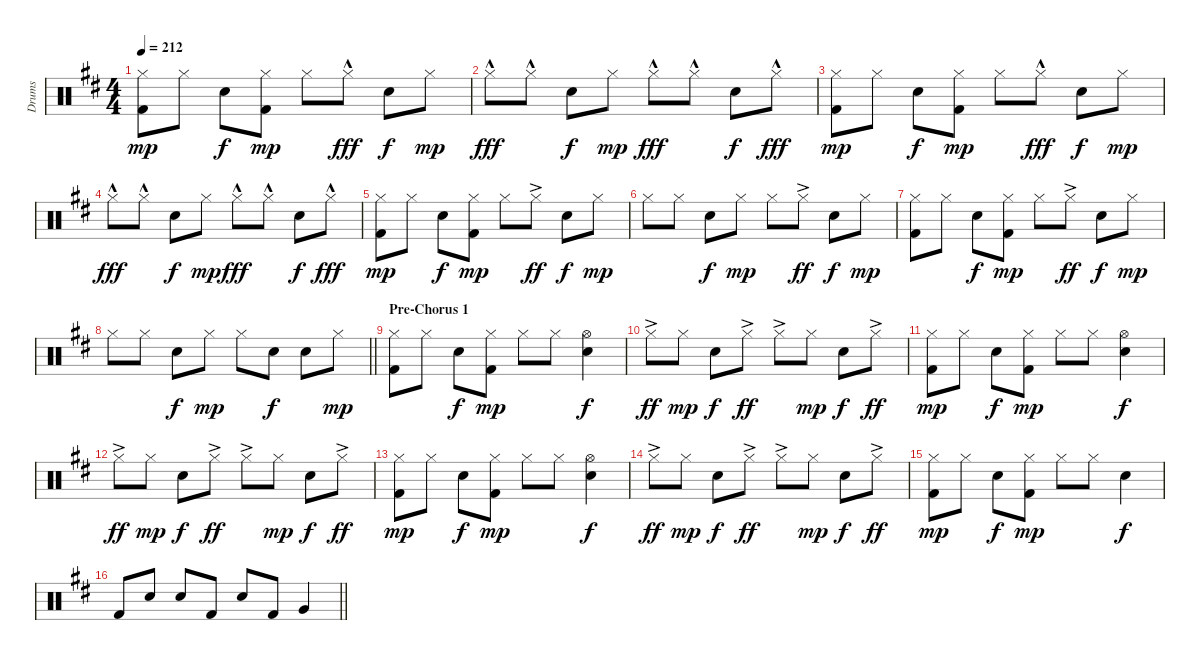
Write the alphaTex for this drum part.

\track ("Drums" "Drums") {instrument percussion}
\staff {score}
\articulation defaults
\ts (4 4)
\tempo 212
\clef neutral
\ks d
("Hi-Hat (closed)" "Kick (hit) 2").8{dy mp} "Hi-Hat (closed)".8 "Electric Snare (hit)".8{dy f} ("Hi-Hat (closed)" "Kick (hit) 2").8{dy mp} "Hi-Hat (closed)".8 "Hi-Hat (closed)"{hac}.8{dy fff} "Electric Snare (hit)".8{dy f} "Hi-Hat (closed)".8{dy mp} |
"Hi-Hat (closed)"{hac}.8{dy fff} "Hi-Hat (closed)"{hac}.8 "Electric Snare (hit)".8{dy f} "Hi-Hat (closed)".8{dy mp} "Hi-Hat (closed)"{hac}.8{dy fff} "Hi-Hat (closed)"{hac}.8 "Electric Snare (hit)".8{dy f} "Hi-Hat (closed)"{hac}.8{dy fff} |
("Hi-Hat (closed)" "Kick (hit) 2").8{dy mp} "Hi-Hat (closed)".8 "Electric Snare (hit)".8{dy f} ("Hi-Hat (closed)" "Kick (hit) 2").8{dy mp} "Hi-Hat (closed)".8 "Hi-Hat (closed)"{hac}.8{dy fff} "Electric Snare (hit)".8{dy f} "Hi-Hat (closed)".8{dy mp} |
"Hi-Hat (closed)"{hac}.8{dy fff} "Hi-Hat (closed)"{hac}.8 "Electric Snare (hit)".8{dy f} "Hi-Hat (closed)".8{dy mp} "Hi-Hat (closed)"{hac}.8{dy fff} "Hi-Hat (closed)"{hac}.8 "Electric Snare (hit)".8{dy f} "Hi-Hat (closed)"{hac}.8{dy fff} |
("Hi-Hat (closed)" "Kick (hit) 2").8{dy mp} "Hi-Hat (closed)".8 "Electric Snare (hit)".8{dy f} ("Hi-Hat (closed)" "Kick (hit) 2").8{dy mp} "Hi-Hat (closed)".8 "Hi-Hat (closed)"{ac}.8{dy ff} "Electric Snare (hit)".8{dy f} "Hi-Hat (closed)".8{dy mp} |
"Hi-Hat (closed)".8 "Hi-Hat (closed)".8 "Electric Snare (hit)".8{dy f} "Hi-Hat (closed)".8{dy mp} "Hi-Hat (closed)".8 "Hi-Hat (closed)"{ac}.8{dy ff} "Electric Snare (hit)".8{dy f} "Hi-Hat (closed)".8{dy mp} |
("Hi-Hat (closed)" "Kick (hit) 2").8 "Hi-Hat (closed)".8 "Electric Snare (hit)".8{dy f} ("Hi-Hat (closed)" "Kick (hit) 2").8{dy mp} "Hi-Hat (closed)".8 "Hi-Hat (closed)"{ac}.8{dy ff} "Electric Snare (hit)".8{dy f} "Hi-Hat (closed)".8{dy mp} |
\barLineRight lightlight "Hi-Hat (closed)".8 "Hi-Hat (closed)".8 "Electric Snare (hit)".8{dy f} "Hi-Hat (closed)".8{dy mp} "Hi-Hat (closed)".8 "Electric Snare (hit)".8{dy f} "Electric Snare (hit)".8 "Hi-Hat (closed)".8{dy mp}
|
\section ("" "Pre-Chorus 1")
("Hi-Hat (closed)" "Kick (hit) 2").8 "Hi-Hat (closed)".8 "Electric Snare (hit)".8{dy f} ("Hi-Hat (closed)" "Kick (hit) 2").8{dy mp} "Hi-Hat (closed)".8 "Hi-Hat (closed)".8 ("Hi-Hat (open)" "Electric Snare (hit)").4{dy f} |
"Hi-Hat (closed)"{ac}.8{dy ff} "Hi-Hat (closed)".8{dy mp} "Electric Snare (hit)".8{dy f} "Hi-Hat (closed)"{ac}.8{dy ff} "Hi-Hat (closed)"{ac}.8 "Hi-Hat (closed)".8{dy mp} "Electric Snare (hit)".8{dy f} "Hi-Hat (closed)"{ac}.8{dy ff} |
("Hi-Hat (closed)" "Kick (hit) 2").8{dy mp} "Hi-Hat (closed)".8 "Electric Snare (hit)".8{dy f} ("Hi-Hat (closed)" "Kick (hit) 2").8{dy mp} "Hi-Hat (closed)".8 "Hi-Hat (closed)".8 ("Hi-Hat (open)" "Electric Snare (hit)").4{dy f} |
"Hi-Hat (closed)"{ac}.8{dy ff} "Hi-Hat (closed)".8{dy mp} "Electric Snare (hit)".8{dy f} "Hi-Hat (closed)"{ac}.8{dy ff} "Hi-Hat (closed)"{ac}.8 "Hi-Hat (closed)".8{dy mp} "Electric Snare (hit)".8{dy f} "Hi-Hat (closed)"{ac}.8{dy ff} |
("Hi-Hat (closed)" "Kick (hit) 2").8{dy mp} "Hi-Hat (closed)".8 "Electric Snare (hit)".8{dy f} ("Hi-Hat (closed)" "Kick (hit) 2").8{dy mp} "Hi-Hat (closed)".8 "Hi-Hat (closed)".8 ("Hi-Hat (open)" "Electric Snare (hit)").4{dy f} |
"Hi-Hat (closed)"{ac}.8{dy ff} "Hi-Hat (closed)".8{dy mp} "Electric Snare (hit)".8{dy f} "Hi-Hat (closed)"{ac}.8{dy ff} "Hi-Hat (closed)"{ac}.8 "Hi-Hat (closed)".8{dy mp} "Electric Snare (hit)".8{dy f} "Hi-Hat (closed)"{ac}.8{dy ff} |
("Hi-Hat (closed)" "Kick (hit) 2").8{dy mp} "Hi-Hat (closed)".8 "Electric Snare (hit)".8{dy f} ("Hi-Hat (closed)" "Kick (hit) 2").8{dy mp} "Hi-Hat (closed)".8 "Hi-Hat (closed)".8 "Electric Snare (hit)".4{dy f} |
\barLineRight lightlight "Kick (hit) 2".8 "Electric Snare (hit)".8 "Electric Snare (hit)".8 "Kick (hit) 2".8 "Electric Snare (hit)".8 "Kick (hit) 2".8 "Very Low Tom (hit)".4
